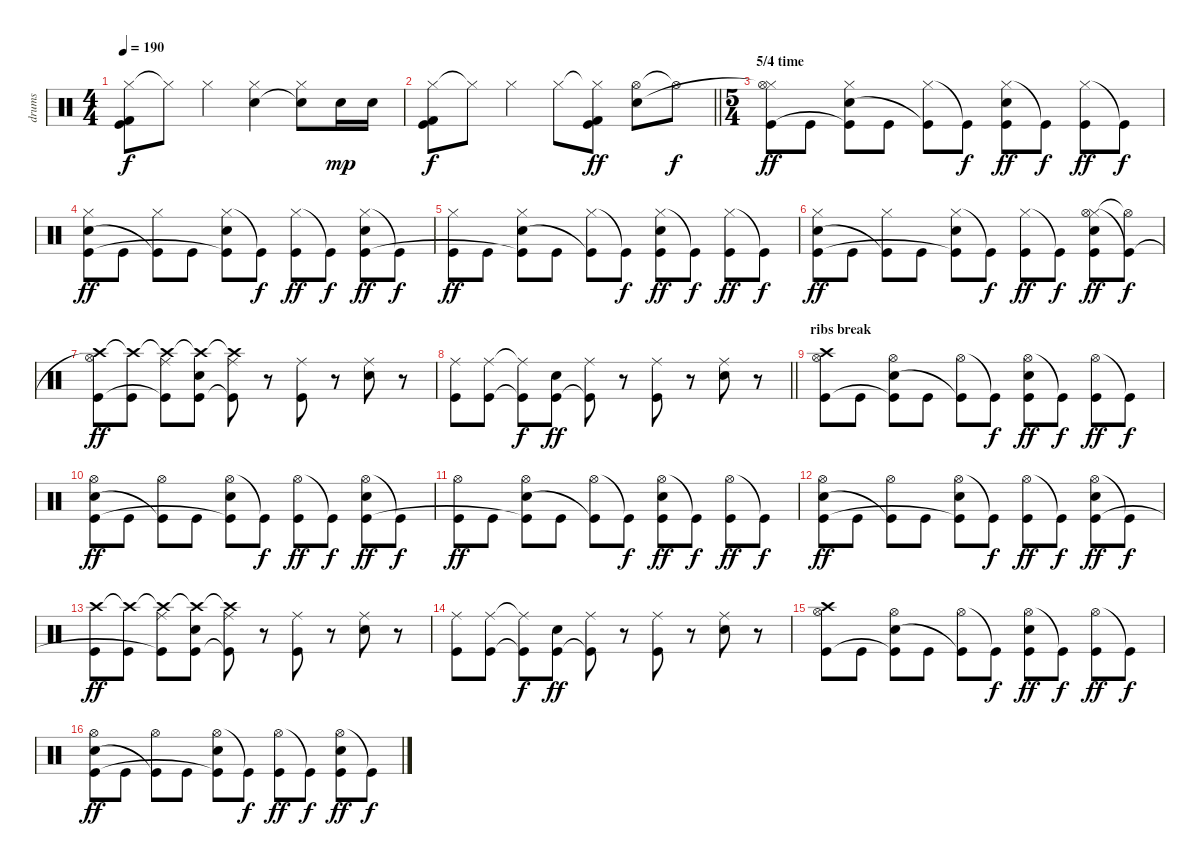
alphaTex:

\track ("drums" "drums") {instrument percussion}
\staff {score}
\articulation defaults
\ts (4 4)
\tempo 190
\clef neutral
\ks c
("Hi-Hat (closed)" "Kick (hit) 2" "Kick (hit)").8{dy f} "Hi-Hat (closed)"{t}.8 "Hi-Hat (closed)".4 ("Hi-Hat (closed)" "Electric Snare (hit)").4 ("Hi-Hat (closed)" "Electric Snare (hit)"{t}).8 "Electric Snare (hit)".16{dy mp} "Electric Snare (hit)".16 |
\barLineRight lightlight
("Hi-Hat (closed)" "Kick (hit) 2" "Kick (hit)").8{dy f} "Hi-Hat (closed)"{t}.8 "Hi-Hat (closed)".4 "Hi-Hat (closed)".8 ("Hi-Hat (closed)"{t} "Kick (hit) 2" "Kick (hit)").8{dy ff} ("Hi-Hat (open)" "Electric Snare (hit)").8 "Hi-Hat (open)"{t}.8{dy f} |
\ts (5 4)
\section ("" "5/4 time")
("Hi-Hat (closed)" "Hi-Hat (open)"{t} "Kick (hit)").8{dy ff} "Kick (hit)".8 ("Hi-Hat (closed)" "Electric Snare (hit)" "Kick (hit)"{t}).8 "Kick (hit)".8 ("Hi-Hat (closed)" "Kick (hit)"{t}).8 "Kick (hit)"{t}.8{dy f} ("Hi-Hat (closed)" "Electric Snare (hit)" "Kick (hit)").8{dy ff} "Kick (hit)"{t}.8{dy f} ("Hi-Hat (closed)" "Kick (hit)").8{dy ff} "Kick (hit)"{t}.8{dy f} |
("Hi-Hat (closed)" "Electric Snare (hit)" "Kick (hit)").8{dy ff} "Kick (hit)".8 ("Hi-Hat (closed)" "Kick (hit)"{t}).8 "Kick (hit)".8 ("Hi-Hat (closed)" "Electric Snare (hit)" "Kick (hit)"{t}).8 "Kick (hit)"{t}.8{dy f} ("Hi-Hat (closed)" "Kick (hit)").8{dy ff} "Kick (hit)"{t}.8{dy f} ("Hi-Hat (closed)" "Electric Snare (hit)" "Kick (hit)").8{dy ff} "Kick (hit)"{t}.8{dy f} |
("Hi-Hat (closed)" "Kick (hit)").8{dy ff} "Kick (hit)".8 ("Hi-Hat (closed)" "Electric Snare (hit)" "Kick (hit)"{t}).8 "Kick (hit)".8 ("Hi-Hat (closed)" "Kick (hit)"{t}).8 "Kick (hit)"{t}.8{dy f} ("Hi-Hat (closed)" "Electric Snare (hit)" "Kick (hit)").8{dy ff} "Kick (hit)"{t}.8{dy f} ("Hi-Hat (closed)" "Kick (hit)").8{dy ff} "Kick (hit)"{t}.8{dy f} |
("Hi-Hat (closed)" "Electric Snare (hit)" "Kick (hit)").8{dy ff} "Kick (hit)".8 ("Hi-Hat (closed)" "Kick (hit)"{t}).8 "Kick (hit)".8 ("Hi-Hat (closed)" "Electric Snare (hit)" "Kick (hit)"{t}).8 "Kick (hit)"{t}.8{dy f} ("Hi-Hat (closed)" "Kick (hit)").8{dy ff} "Kick (hit)"{t}.8{dy f} ("Hi-Hat (closed)" "Hi-Hat (open)" "Electric Snare (hit)" "Kick (hit)").8{dy ff} ("Hi-Hat (open)"{t} "Kick (hit)"{t}).8{dy f} |
("Crash high (hit)" "Hi-Hat (open)"{t} "Kick (hit)").8{dy ff} ("Crash high (hit)"{t} "Kick (hit)").8 ("Crash high (hit)"{t} "Ride (middle)" "Kick (hit)"{t}).8 ("Crash high (hit)"{t} "Electric Snare (hit)" "Kick (hit)").8 ("Crash high (hit)"{t} "Ride (middle)" "Kick (hit)"{t}).8 r.8 ("Ride (middle)" "Kick (hit)").8 r.8 ("Ride (middle)" "Electric Snare (hit)").8 r.8 |
\barLineRight lightlight
("Ride (middle)" "Kick (hit)").8 ("Ride (middle)" "Kick (hit)").8 ("Ride (middle)"{t} "Kick (hit)"{t}).8{dy f} ("Electric Snare (hit)" "Kick (hit)").8{dy ff} ("Ride (middle)" "Kick (hit)"{t}).8 r.8 ("Ride (middle)" "Kick (hit)").8 r.8 ("Ride (middle)" "Electric Snare (hit)").8 r.8 |
\section ("" "ribs break")
("Crash high (hit)" "Hi-Hat (open)" "Kick (hit)").8 "Kick (hit)".8 ("Hi-Hat (open)" "Electric Snare (hit)" "Kick (hit)"{t}).8 "Kick (hit)".8 ("Hi-Hat (open)" "Kick (hit)"{t}).8 "Kick (hit)"{t}.8{dy f} ("Hi-Hat (open)" "Electric Snare (hit)" "Kick (hit)").8{dy ff} "Kick (hit)"{t}.8{dy f} ("Hi-Hat (open)" "Kick (hit)").8{dy ff} "Kick (hit)"{t}.8{dy f} |
("Hi-Hat (open)" "Electric Snare (hit)" "Kick (hit)").8{dy ff} "Kick (hit)".8 ("Hi-Hat (open)" "Kick (hit)"{t}).8 "Kick (hit)".8 ("Hi-Hat (open)" "Electric Snare (hit)" "Kick (hit)"{t}).8 "Kick (hit)"{t}.8{dy f} ("Hi-Hat (open)" "Kick (hit)").8{dy ff} "Kick (hit)"{t}.8{dy f} ("Hi-Hat (open)" "Electric Snare (hit)" "Kick (hit)").8{dy ff} "Kick (hit)"{t}.8{dy f} |
("Hi-Hat (open)" "Kick (hit)").8{dy ff} "Kick (hit)".8 ("Hi-Hat (open)" "Electric Snare (hit)" "Kick (hit)"{t}).8 "Kick (hit)".8 ("Hi-Hat (open)" "Kick (hit)"{t}).8 "Kick (hit)"{t}.8{dy f} ("Hi-Hat (open)" "Electric Snare (hit)" "Kick (hit)").8{dy ff} "Kick (hit)"{t}.8{dy f} ("Hi-Hat (open)" "Kick (hit)").8{dy ff} "Kick (hit)"{t}.8{dy f} |
("Hi-Hat (open)" "Electric Snare (hit)" "Kick (hit)").8{dy ff} "Kick (hit)".8 ("Hi-Hat (open)" "Kick (hit)"{t}).8 "Kick (hit)".8 ("Hi-Hat (open)" "Electric Snare (hit)" "Kick (hit)"{t}).8 "Kick (hit)"{t}.8{dy f} ("Hi-Hat (open)" "Kick (hit)").8{dy ff} "Kick (hit)"{t}.8{dy f} ("Hi-Hat (open)" "Electric Snare (hit)" "Kick (hit)").8{dy ff} "Kick (hit)"{t}.8{dy f} |
("Crash high (hit)" "Kick (hit)").8{dy ff} ("Crash high (hit)"{t} "Kick (hit)").8 ("Crash high (hit)"{t} "Ride (middle)" "Kick (hit)"{t}).8 ("Crash high (hit)"{t} "Electric Snare (hit)" "Kick (hit)").8 ("Crash high (hit)"{t} "Ride (middle)" "Kick (hit)"{t}).8 r.8 ("Ride (middle)" "Kick (hit)").8 r.8 ("Ride (middle)" "Electric Snare (hit)").8 r.8 |
("Ride (middle)" "Kick (hit)").8 ("Ride (middle)" "Kick (hit)").8 ("Ride (middle)"{t} "Kick (hit)"{t}).8{dy f} ("Electric Snare (hit)" "Kick (hit)").8{dy ff} ("Ride (middle)" "Kick (hit)"{t}).8 r.8 ("Ride (middle)" "Kick (hit)").8 r.8 ("Ride (middle)" "Electric Snare (hit)").8 r.8 |
("Crash high (hit)" "Hi-Hat (open)" "Kick (hit)").8 "Kick (hit)".8 ("Hi-Hat (open)" "Electric Snare (hit)" "Kick (hit)"{t}).8 "Kick (hit)".8 ("Hi-Hat (open)" "Kick (hit)"{t}).8 "Kick (hit)"{t}.8{dy f} ("Hi-Hat (open)" "Electric Snare (hit)" "Kick (hit)").8{dy ff} "Kick (hit)"{t}.8{dy f} ("Hi-Hat (open)" "Kick (hit)").8{dy ff} "Kick (hit)"{t}.8{dy f} |
("Hi-Hat (open)" "Electric Snare (hit)" "Kick (hit)").8{dy ff} "Kick (hit)".8 ("Hi-Hat (open)" "Kick (hit)"{t}).8 "Kick (hit)".8 ("Hi-Hat (open)" "Electric Snare (hit)" "Kick (hit)"{t}).8 "Kick (hit)"{t}.8{dy f} ("Hi-Hat (open)" "Kick (hit)").8{dy ff} "Kick (hit)"{t}.8{dy f} ("Hi-Hat (open)" "Electric Snare (hit)" "Kick (hit)").8{dy ff} "Kick (hit)"{t}.8{dy f}
